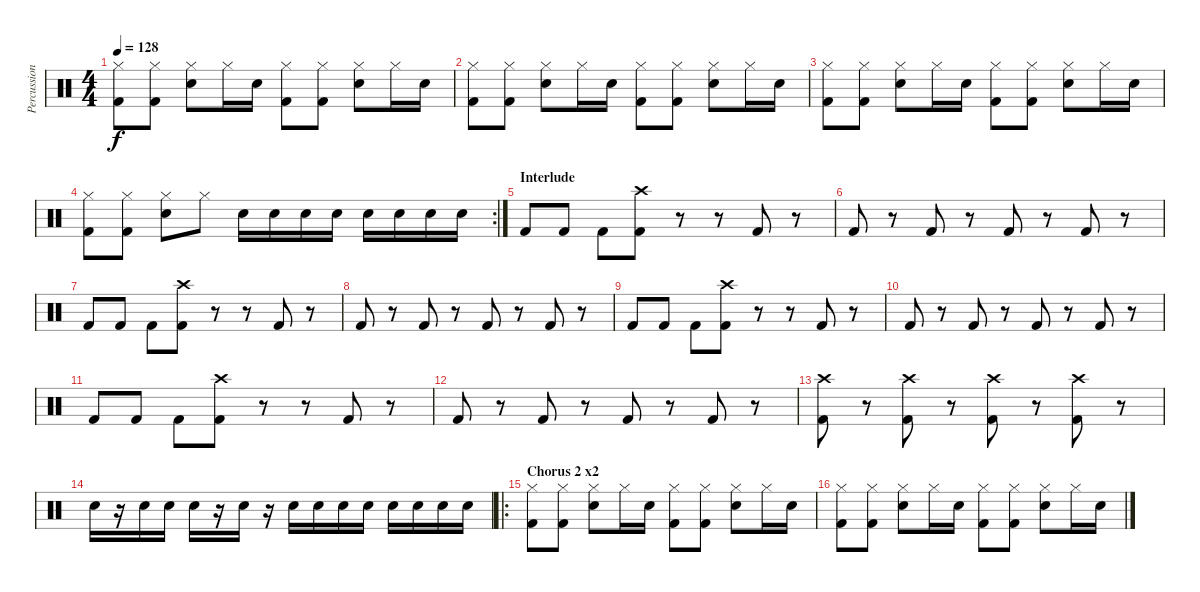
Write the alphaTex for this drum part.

\track ("Percussion" "Percussion") {instrument percussion}
\staff {score}
\articulation defaults
\ts (4 4)
\tempo 128
\clef neutral
\ks c
("Hi-Hat (closed)" "Kick (hit) 2").8{dy f} ("Hi-Hat (closed)" "Kick (hit) 2").8 ("Hi-Hat (closed)" "Snare (hit) 2").8 "Hi-Hat (closed)".16 "Snare (hit) 2".16 ("Hi-Hat (closed)" "Kick (hit) 2").8 ("Hi-Hat (closed)" "Kick (hit) 2").8 ("Hi-Hat (closed)" "Snare (hit) 2").8 "Hi-Hat (closed)".16 "Snare (hit) 2".16 |
("Hi-Hat (closed)" "Kick (hit) 2").8 ("Hi-Hat (closed)" "Kick (hit) 2").8 ("Hi-Hat (closed)" "Snare (hit) 2").8 "Hi-Hat (closed)".16 "Snare (hit) 2".16 ("Hi-Hat (closed)" "Kick (hit) 2").8 ("Hi-Hat (closed)" "Kick (hit) 2").8 ("Hi-Hat (closed)" "Snare (hit) 2").8 "Hi-Hat (closed)".16 "Snare (hit) 2".16 |
("Hi-Hat (closed)" "Kick (hit) 2").8 ("Hi-Hat (closed)" "Kick (hit) 2").8 ("Hi-Hat (closed)" "Snare (hit) 2").8 "Hi-Hat (closed)".16 "Snare (hit) 2".16 ("Hi-Hat (closed)" "Kick (hit) 2").8 ("Hi-Hat (closed)" "Kick (hit) 2").8 ("Hi-Hat (closed)" "Snare (hit) 2").8 "Hi-Hat (closed)".16 "Snare (hit) 2".16 |
\rc 2
("Hi-Hat (closed)" "Kick (hit) 2").8 ("Hi-Hat (closed)" "Kick (hit) 2").8 ("Hi-Hat (closed)" "Snare (hit) 2").8 "Hi-Hat (closed)".8 "Snare (hit) 2".16 "Snare (hit) 2".16 "Snare (hit) 2".16 "Snare (hit) 2".16 "Snare (hit) 2".16 "Snare (hit) 2".16 "Snare (hit) 2".16 "Snare (hit) 2".16 |
\section ("" "Interlude")
"Kick (hit) 2".8 "Kick (hit) 2".8 "Kick (hit) 2".8 ("Crash high (hit)" "Kick (hit) 2").8 r.8 r.8 "Kick (hit) 2".8 r.8 |
"Kick (hit) 2".8 r.8 "Kick (hit) 2".8 r.8 "Kick (hit) 2".8 r.8 "Kick (hit) 2".8 r.8 |
"Kick (hit) 2".8 "Kick (hit) 2".8 "Kick (hit) 2".8 ("Crash high (hit)" "Kick (hit) 2").8 r.8 r.8 "Kick (hit) 2".8 r.8 |
"Kick (hit) 2".8 r.8 "Kick (hit) 2".8 r.8 "Kick (hit) 2".8 r.8 "Kick (hit) 2".8 r.8 |
"Kick (hit) 2".8 "Kick (hit) 2".8 "Kick (hit) 2".8 ("Crash high (hit)" "Kick (hit) 2").8 r.8 r.8 "Kick (hit) 2".8 r.8 |
"Kick (hit) 2".8 r.8 "Kick (hit) 2".8 r.8 "Kick (hit) 2".8 r.8 "Kick (hit) 2".8 r.8 |
"Kick (hit) 2".8 "Kick (hit) 2".8 "Kick (hit) 2".8 ("Crash high (hit)" "Kick (hit) 2").8 r.8 r.8 "Kick (hit) 2".8 r.8 |
"Kick (hit) 2".8 r.8 "Kick (hit) 2".8 r.8 "Kick (hit) 2".8 r.8 "Kick (hit) 2".8 r.8 |
("Crash high (hit)" "Kick (hit) 2").8 r.8 ("Crash high (hit)" "Kick (hit) 2").8 r.8 ("Crash high (hit)" "Kick (hit) 2").8 r.8 ("Crash high (hit)" "Kick (hit) 2").8 r.8 |
"Snare (hit) 2".16 r.16 "Snare (hit) 2".16 "Snare (hit) 2".16 "Snare (hit) 2".16 r.16 "Snare (hit) 2".16 r.16 "Snare (hit) 2".16 "Snare (hit) 2".16 "Snare (hit) 2".16 "Snare (hit) 2".16 "Snare (hit) 2".16 "Snare (hit) 2".16 "Snare (hit) 2".16 "Snare (hit) 2".16 |
\ro
\section ("" "Chorus 2 x2")
("Hi-Hat (closed)" "Kick (hit) 2").8 ("Hi-Hat (closed)" "Kick (hit) 2").8 ("Hi-Hat (closed)" "Snare (hit) 2").8 "Hi-Hat (closed)".16 "Snare (hit) 2".16 ("Hi-Hat (closed)" "Kick (hit) 2").8 ("Hi-Hat (closed)" "Kick (hit) 2").8 ("Hi-Hat (closed)" "Snare (hit) 2").8 "Hi-Hat (closed)".16 "Snare (hit) 2".16 |
("Hi-Hat (closed)" "Kick (hit) 2").8 ("Hi-Hat (closed)" "Kick (hit) 2").8 ("Hi-Hat (closed)" "Snare (hit) 2").8 "Hi-Hat (closed)".16 "Snare (hit) 2".16 ("Hi-Hat (closed)" "Kick (hit) 2").8 ("Hi-Hat (closed)" "Kick (hit) 2").8 ("Hi-Hat (closed)" "Snare (hit) 2").8 "Hi-Hat (closed)".16 "Snare (hit) 2".16
